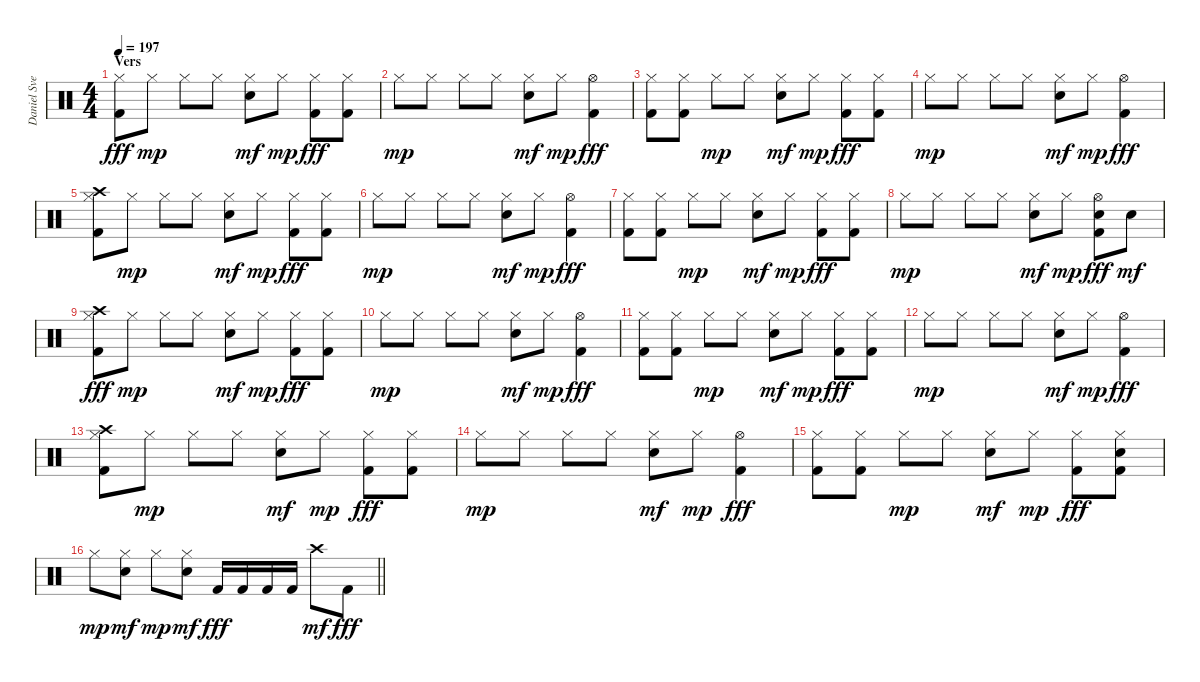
\track ("Daniel Svensson" "Daniel Sve") {instrument percussion}
\staff {score}
\articulation defaults
\ts (4 4)
\section ("" "Vers")
\tempo 197
\clef neutral
\ks c
("Hi-Hat (closed)" "Kick (hit) 2").8{dy fff} "Hi-Hat (closed)".8{dy mp} "Hi-Hat (closed)".8 "Hi-Hat (closed)".8 ("Hi-Hat (closed)" "Electric Snare (hit)").8{dy mf} "Hi-Hat (closed)".8{dy mp} ("Hi-Hat (closed)" "Kick (hit) 2").8{dy fff} ("Hi-Hat (closed)" "Kick (hit) 2").8 |
"Hi-Hat (closed)".8{dy mp} "Hi-Hat (closed)".8 "Hi-Hat (closed)".8 "Hi-Hat (closed)".8 ("Hi-Hat (closed)" "Electric Snare (hit)").8{dy mf} "Hi-Hat (closed)".8{dy mp} ("Hi-Hat (open)" "Kick (hit) 2").4{dy fff} |
("Hi-Hat (closed)" "Kick (hit) 2").8 ("Hi-Hat (closed)" "Kick (hit) 2").8 "Hi-Hat (closed)".8{dy mp} "Hi-Hat (closed)".8 ("Hi-Hat (closed)" "Electric Snare (hit)").8{dy mf} "Hi-Hat (closed)".8{dy mp} ("Hi-Hat (closed)" "Kick (hit) 2").8{dy fff} ("Hi-Hat (closed)" "Kick (hit) 2").8 |
"Hi-Hat (closed)".8{dy mp} "Hi-Hat (closed)".8 "Hi-Hat (closed)".8 "Hi-Hat (closed)".8 ("Hi-Hat (closed)" "Electric Snare (hit)").8{dy mf} "Hi-Hat (closed)".8{dy mp} ("Hi-Hat (open)" "Kick (hit) 2").4{dy fff} |
("Crash high (hit)" "Hi-Hat (closed)" "Kick (hit) 2").8 "Hi-Hat (closed)".8{dy mp} "Hi-Hat (closed)".8 "Hi-Hat (closed)".8 ("Hi-Hat (closed)" "Electric Snare (hit)").8{dy mf} "Hi-Hat (closed)".8{dy mp} ("Hi-Hat (closed)" "Kick (hit) 2").8{dy fff} ("Hi-Hat (closed)" "Kick (hit) 2").8 |
"Hi-Hat (closed)".8{dy mp} "Hi-Hat (closed)".8 "Hi-Hat (closed)".8 "Hi-Hat (closed)".8 ("Hi-Hat (closed)" "Electric Snare (hit)").8{dy mf} "Hi-Hat (closed)".8{dy mp} ("Hi-Hat (open)" "Kick (hit) 2").4{dy fff} |
("Hi-Hat (closed)" "Kick (hit) 2").8 ("Hi-Hat (closed)" "Kick (hit) 2").8 "Hi-Hat (closed)".8{dy mp} "Hi-Hat (closed)".8 ("Hi-Hat (closed)" "Electric Snare (hit)").8{dy mf} "Hi-Hat (closed)".8{dy mp} ("Hi-Hat (closed)" "Kick (hit) 2").8{dy fff} ("Hi-Hat (closed)" "Kick (hit) 2").8 |
"Hi-Hat (closed)".8{dy mp} "Hi-Hat (closed)".8 "Hi-Hat (closed)".8 "Hi-Hat (closed)".8 ("Hi-Hat (closed)" "Electric Snare (hit)").8{dy mf} "Hi-Hat (closed)".8{dy mp} ("Hi-Hat (open)" "Electric Snare (hit)" "Kick (hit) 2").8{dy fff} "Electric Snare (hit)".8{dy mf} |
("Crash high (hit)" "Hi-Hat (closed)" "Kick (hit) 2").8{dy fff} "Hi-Hat (closed)".8{dy mp} "Hi-Hat (closed)".8 "Hi-Hat (closed)".8 ("Hi-Hat (closed)" "Electric Snare (hit)").8{dy mf} "Hi-Hat (closed)".8{dy mp} ("Hi-Hat (closed)" "Kick (hit) 2").8{dy fff} ("Hi-Hat (closed)" "Kick (hit) 2").8 |
"Hi-Hat (closed)".8{dy mp} "Hi-Hat (closed)".8 "Hi-Hat (closed)".8 "Hi-Hat (closed)".8 ("Hi-Hat (closed)" "Electric Snare (hit)").8{dy mf} "Hi-Hat (closed)".8{dy mp} ("Hi-Hat (open)" "Kick (hit) 2").4{dy fff} |
("Hi-Hat (closed)" "Kick (hit) 2").8 ("Hi-Hat (closed)" "Kick (hit) 2").8 "Hi-Hat (closed)".8{dy mp} "Hi-Hat (closed)".8 ("Hi-Hat (closed)" "Electric Snare (hit)").8{dy mf} "Hi-Hat (closed)".8{dy mp} ("Hi-Hat (closed)" "Kick (hit) 2").8{dy fff} ("Hi-Hat (closed)" "Kick (hit) 2").8 |
"Hi-Hat (closed)".8{dy mp} "Hi-Hat (closed)".8 "Hi-Hat (closed)".8 "Hi-Hat (closed)".8 ("Hi-Hat (closed)" "Electric Snare (hit)").8{dy mf} "Hi-Hat (closed)".8{dy mp} ("Hi-Hat (open)" "Kick (hit) 2").4{dy fff} |
("Crash high (hit)" "Hi-Hat (closed)" "Kick (hit) 2").8 "Hi-Hat (closed)".8{dy mp} "Hi-Hat (closed)".8 "Hi-Hat (closed)".8 ("Hi-Hat (closed)" "Electric Snare (hit)").8{dy mf} "Hi-Hat (closed)".8{dy mp} ("Hi-Hat (closed)" "Kick (hit) 2").8{dy fff} ("Hi-Hat (closed)" "Kick (hit) 2").8 |
"Hi-Hat (closed)".8{dy mp} "Hi-Hat (closed)".8 "Hi-Hat (closed)".8 "Hi-Hat (closed)".8 ("Hi-Hat (closed)" "Electric Snare (hit)").8{dy mf} "Hi-Hat (closed)".8{dy mp} ("Hi-Hat (open)" "Kick (hit) 2").4{dy fff} |
("Hi-Hat (closed)" "Kick (hit) 2").8 ("Hi-Hat (closed)" "Kick (hit) 2").8 "Hi-Hat (closed)".8{dy mp} "Hi-Hat (closed)".8 ("Hi-Hat (closed)" "Electric Snare (hit)").8{dy mf} "Hi-Hat (closed)".8{dy mp} ("Hi-Hat (closed)" "Kick (hit) 2").8{dy fff} ("Hi-Hat (closed)" "Electric Snare (hit)" "Kick (hit) 2").8 |
\barLineRight lightlight "Hi-Hat (closed)".8{dy mp}
("Hi-Hat (closed)" "Electric Snare (hit)").8{dy mf} "Hi-Hat (closed)".8{dy mp} ("Hi-Hat (closed)" "Electric Snare (hit)").8{dy mf} "Kick (hit) 2".16{dy fff} "Kick (hit) 2".16 "Kick (hit) 2".16 "Kick (hit) 2".16 "Crash high (hit)".8{dy mf} "Kick (hit) 2".8{dy fff}
